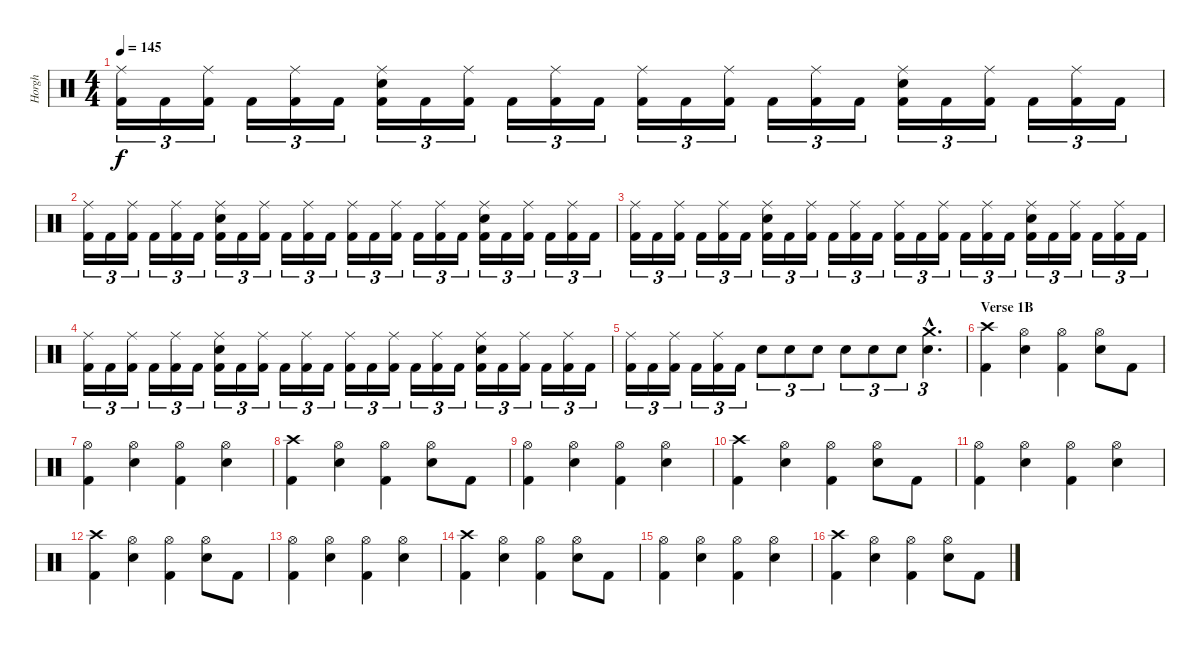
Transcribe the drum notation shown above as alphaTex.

\track ("Horgh" "Horgh") {instrument percussion}
\staff {score}
\articulation defaults
\ts (4 4)
\tempo 145
\clef neutral
\ks c
("Ride (middle)" "Kick (hit) 2").16{tu (3 2) dy f} "Kick (hit) 2".16{tu (3 2)} ("Ride (middle)" "Kick (hit) 2").16{tu (3 2)} "Kick (hit) 2".16{tu (3 2)} ("Ride (middle)" "Kick (hit) 2").16{tu (3 2)} "Kick (hit) 2".16{tu (3 2)} ("Ride (middle)" "Electric Snare (hit)" "Kick (hit) 2").16{tu (3 2)} "Kick (hit) 2".16{tu (3 2)} ("Ride (middle)" "Kick (hit) 2").16{tu (3 2)} "Kick (hit) 2".16{tu (3 2)} ("Ride (middle)" "Kick (hit) 2").16{tu (3 2)} "Kick (hit) 2".16{tu (3 2)} ("Ride (middle)" "Kick (hit) 2").16{tu (3 2)} "Kick (hit) 2".16{tu (3 2)} ("Ride (middle)" "Kick (hit) 2").16{tu (3 2)} "Kick (hit) 2".16{tu (3 2)} ("Ride (middle)" "Kick (hit) 2").16{tu (3 2)} "Kick (hit) 2".16{tu (3 2)} ("Ride (middle)" "Electric Snare (hit)" "Kick (hit) 2").16{tu (3 2)} "Kick (hit) 2".16{tu (3 2)} ("Ride (middle)" "Kick (hit) 2").16{tu (3 2)} "Kick (hit) 2".16{tu (3 2)} ("Ride (middle)" "Kick (hit) 2").16{tu (3 2)} "Kick (hit) 2".16{tu (3 2)} |
("Ride (middle)" "Kick (hit) 2").16{tu (3 2)} "Kick (hit) 2".16{tu (3 2)} ("Ride (middle)" "Kick (hit) 2").16{tu (3 2)} "Kick (hit) 2".16{tu (3 2)} ("Ride (middle)" "Kick (hit) 2").16{tu (3 2)} "Kick (hit) 2".16{tu (3 2)} ("Ride (middle)" "Electric Snare (hit)" "Kick (hit) 2").16{tu (3 2)} "Kick (hit) 2".16{tu (3 2)} ("Ride (middle)" "Kick (hit) 2").16{tu (3 2)} "Kick (hit) 2".16{tu (3 2)} ("Ride (middle)" "Kick (hit) 2").16{tu (3 2)} "Kick (hit) 2".16{tu (3 2)} ("Ride (middle)" "Kick (hit) 2").16{tu (3 2)} "Kick (hit) 2".16{tu (3 2)} ("Ride (middle)" "Kick (hit) 2").16{tu (3 2)} "Kick (hit) 2".16{tu (3 2)} ("Ride (middle)" "Kick (hit) 2").16{tu (3 2)} "Kick (hit) 2".16{tu (3 2)} ("Ride (middle)" "Electric Snare (hit)" "Kick (hit) 2").16{tu (3 2)} "Kick (hit) 2".16{tu (3 2)} ("Ride (middle)" "Kick (hit) 2").16{tu (3 2)} "Kick (hit) 2".16{tu (3 2)} ("Ride (middle)" "Kick (hit) 2").16{tu (3 2)} "Kick (hit) 2".16{tu (3 2)} |
("Ride (middle)" "Kick (hit) 2").16{tu (3 2)} "Kick (hit) 2".16{tu (3 2)} ("Ride (middle)" "Kick (hit) 2").16{tu (3 2)} "Kick (hit) 2".16{tu (3 2)} ("Ride (middle)" "Kick (hit) 2").16{tu (3 2)} "Kick (hit) 2".16{tu (3 2)} ("Ride (middle)" "Electric Snare (hit)" "Kick (hit) 2").16{tu (3 2)} "Kick (hit) 2".16{tu (3 2)} ("Ride (middle)" "Kick (hit) 2").16{tu (3 2)} "Kick (hit) 2".16{tu (3 2)} ("Ride (middle)" "Kick (hit) 2").16{tu (3 2)} "Kick (hit) 2".16{tu (3 2)} ("Ride (middle)" "Kick (hit) 2").16{tu (3 2)} "Kick (hit) 2".16{tu (3 2)} ("Ride (middle)" "Kick (hit) 2").16{tu (3 2)} "Kick (hit) 2".16{tu (3 2)} ("Ride (middle)" "Kick (hit) 2").16{tu (3 2)} "Kick (hit) 2".16{tu (3 2)} ("Ride (middle)" "Electric Snare (hit)" "Kick (hit) 2").16{tu (3 2)} "Kick (hit) 2".16{tu (3 2)} ("Ride (middle)" "Kick (hit) 2").16{tu (3 2)} "Kick (hit) 2".16{tu (3 2)} ("Ride (middle)" "Kick (hit) 2").16{tu (3 2)} "Kick (hit) 2".16{tu (3 2)} |
("Ride (middle)" "Kick (hit) 2").16{tu (3 2)} "Kick (hit) 2".16{tu (3 2)} ("Ride (middle)" "Kick (hit) 2").16{tu (3 2)} "Kick (hit) 2".16{tu (3 2)} ("Ride (middle)" "Kick (hit) 2").16{tu (3 2)} "Kick (hit) 2".16{tu (3 2)} ("Ride (middle)" "Electric Snare (hit)" "Kick (hit) 2").16{tu (3 2)} "Kick (hit) 2".16{tu (3 2)} ("Ride (middle)" "Kick (hit) 2").16{tu (3 2)} "Kick (hit) 2".16{tu (3 2)} ("Ride (middle)" "Kick (hit) 2").16{tu (3 2)} "Kick (hit) 2".16{tu (3 2)} ("Ride (middle)" "Kick (hit) 2").16{tu (3 2)} "Kick (hit) 2".16{tu (3 2)} ("Ride (middle)" "Kick (hit) 2").16{tu (3 2)} "Kick (hit) 2".16{tu (3 2)} ("Ride (middle)" "Kick (hit) 2").16{tu (3 2)} "Kick (hit) 2".16{tu (3 2)} ("Ride (middle)" "Electric Snare (hit)" "Kick (hit) 2").16{tu (3 2)} "Kick (hit) 2".16{tu (3 2)} ("Ride (middle)" "Kick (hit) 2").16{tu (3 2)} "Kick (hit) 2".16{tu (3 2)} ("Ride (middle)" "Kick (hit) 2").16{tu (3 2)} "Kick (hit) 2".16{tu (3 2)} |
("Ride (middle)" "Kick (hit) 2").16{tu (3 2)} "Kick (hit) 2".16{tu (3 2)} ("Ride (middle)" "Kick (hit) 2").16{tu (3 2)} "Kick (hit) 2".16{tu (3 2)} ("Ride (middle)" "Kick (hit) 2").16{tu (3 2)} "Kick (hit) 2".16{tu (3 2)} "Electric Snare (hit)".8{tu (3 2)} "Electric Snare (hit)".8{tu (3 2)} "Electric Snare (hit)".8{tu (3 2)} "Electric Snare (hit)".8{tu (3 2)} "Electric Snare (hit)".8{tu (3 2)} "Electric Snare (hit)".8{tu (3 2)} ("Crash medium (hit)"{hac} "Electric Snare (hit)"{hac}).4{d tu (3 2)} |
\section ("" "Verse 1B")
("Crash high (hit)" "Kick (hit) 2").4 ("Hi-Hat (open)" "Electric Snare (hit)").4 ("Hi-Hat (open)" "Kick (hit) 2").4 ("Hi-Hat (open)" "Electric Snare (hit)").8 "Kick (hit) 2".8 |
("Hi-Hat (open)" "Kick (hit) 2").4 ("Hi-Hat (open)" "Electric Snare (hit)").4 ("Hi-Hat (open)" "Kick (hit) 2").4 ("Hi-Hat (open)" "Electric Snare (hit)").4 |
("Crash high (hit)" "Kick (hit) 2").4 ("Hi-Hat (open)" "Electric Snare (hit)").4 ("Hi-Hat (open)" "Kick (hit) 2").4 ("Hi-Hat (open)" "Electric Snare (hit)").8 "Kick (hit) 2".8 |
("Hi-Hat (open)" "Kick (hit) 2").4 ("Hi-Hat (open)" "Electric Snare (hit)").4 ("Hi-Hat (open)" "Kick (hit) 2").4 ("Hi-Hat (open)" "Electric Snare (hit)").4 |
("Crash high (hit)" "Kick (hit) 2").4 ("Hi-Hat (open)" "Electric Snare (hit)").4 ("Hi-Hat (open)" "Kick (hit) 2").4 ("Hi-Hat (open)" "Electric Snare (hit)").8 "Kick (hit) 2".8 |
("Hi-Hat (open)" "Kick (hit) 2").4 ("Hi-Hat (open)" "Electric Snare (hit)").4 ("Hi-Hat (open)" "Kick (hit) 2").4 ("Hi-Hat (open)" "Electric Snare (hit)").4 |
("Crash high (hit)" "Kick (hit) 2").4 ("Hi-Hat (open)" "Electric Snare (hit)").4 ("Hi-Hat (open)" "Kick (hit) 2").4 ("Hi-Hat (open)" "Electric Snare (hit)").8 "Kick (hit) 2".8 |
("Hi-Hat (open)" "Kick (hit) 2").4 ("Hi-Hat (open)" "Electric Snare (hit)").4 ("Hi-Hat (open)" "Kick (hit) 2").4 ("Hi-Hat (open)" "Electric Snare (hit)").4 |
("Crash high (hit)" "Kick (hit) 2").4 ("Hi-Hat (open)" "Electric Snare (hit)").4 ("Hi-Hat (open)" "Kick (hit) 2").4 ("Hi-Hat (open)" "Electric Snare (hit)").8 "Kick (hit) 2".8 |
("Hi-Hat (open)" "Kick (hit) 2").4 ("Hi-Hat (open)" "Electric Snare (hit)").4 ("Hi-Hat (open)" "Kick (hit) 2").4 ("Hi-Hat (open)" "Electric Snare (hit)").4 |
("Crash high (hit)" "Kick (hit) 2").4 ("Hi-Hat (open)" "Electric Snare (hit)").4 ("Hi-Hat (open)" "Kick (hit) 2").4 ("Hi-Hat (open)" "Electric Snare (hit)").8 "Kick (hit) 2".8
